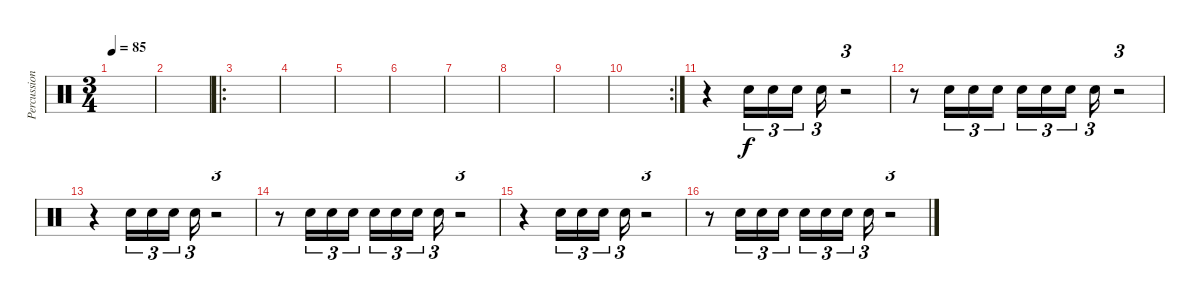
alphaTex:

\track ("Percussion" "Percussion") {instrument percussion}
\staff {score}
\articulation defaults
\ts (3 4)
\tempo 85
\clef neutral
\ks c
|
|
\ro
|
|
|
|
|
|
|
\rc 2
|
r.4 "Snare (hit) 2".16{tu (3 2)} "Snare (hit) 2".16{tu (3 2)} "Snare (hit) 2".16{tu (3 2)} "Snare (hit) 2".16{tu (3 2)} r.2{tu (3 2)} |
r.8 "Snare (hit) 2".16{tu (3 2)} "Snare (hit) 2".16{tu (3 2)} "Snare (hit) 2".16{tu (3 2)} "Snare (hit) 2".16{tu (3 2)} "Snare (hit) 2".16{tu (3 2)} "Snare (hit) 2".16{tu (3 2)} "Snare (hit) 2".16{tu (3 2)} r.2{tu (3 2)} |
r.4 "Snare (hit) 2".16{tu (3 2)} "Snare (hit) 2".16{tu (3 2)} "Snare (hit) 2".16{tu (3 2)} "Snare (hit) 2".16{tu (3 2)} r.2{tu (3 2)} |
r.8 "Snare (hit) 2".16{tu (3 2)} "Snare (hit) 2".16{tu (3 2)} "Snare (hit) 2".16{tu (3 2)} "Snare (hit) 2".16{tu (3 2)} "Snare (hit) 2".16{tu (3 2)} "Snare (hit) 2".16{tu (3 2)} "Snare (hit) 2".16{tu (3 2)} r.2{tu (3 2)} |
r.4 "Snare (hit) 2".16{tu (3 2)} "Snare (hit) 2".16{tu (3 2)} "Snare (hit) 2".16{tu (3 2)} "Snare (hit) 2".16{tu (3 2)} r.2{tu (3 2)} |
r.8 "Snare (hit) 2".16{tu (3 2)} "Snare (hit) 2".16{tu (3 2)} "Snare (hit) 2".16{tu (3 2)} "Snare (hit) 2".16{tu (3 2)} "Snare (hit) 2".16{tu (3 2)} "Snare (hit) 2".16{tu (3 2)} "Snare (hit) 2".16{tu (3 2)} r.2{tu (3 2)}
